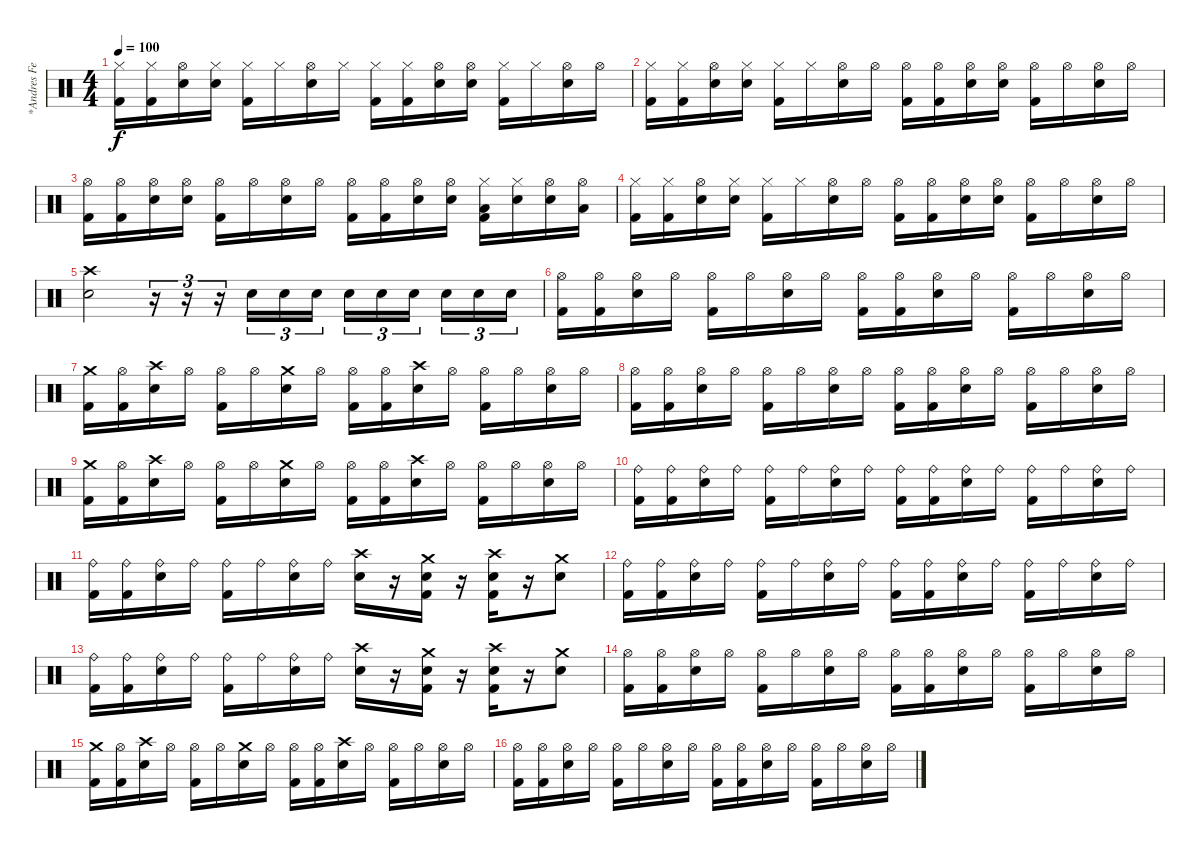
\track ("*Andres Felipe" "*Andres Fe") {instrument percussion}
\staff {score}
\articulation defaults
\ts (4 4)
\tempo 100
\clef neutral
\ks c
("Hi-Hat (closed)" "Kick (hit) 2").16{dy f} ("Hi-Hat (closed)" "Kick (hit) 2").16 ("Hi-Hat (open)" "Electric Snare (hit)").16 ("Hi-Hat (closed)" "Electric Snare (hit)").16 ("Hi-Hat (closed)" "Kick (hit) 2").16 "Hi-Hat (closed)".16 ("Hi-Hat (open)" "Electric Snare (hit)").16 "Hi-Hat (closed)".16 ("Hi-Hat (closed)" "Kick (hit) 2").16 ("Hi-Hat (closed)" "Kick (hit) 2").16 ("Hi-Hat (open)" "Electric Snare (hit)").16 ("Hi-Hat (open)" "Electric Snare (hit)").16 ("Hi-Hat (closed)" "Kick (hit) 2").16 "Hi-Hat (closed)".16 ("Hi-Hat (open)" "Electric Snare (hit)").16 "Hi-Hat (open)".16 |
("Hi-Hat (closed)" "Kick (hit) 2").16 ("Hi-Hat (closed)" "Kick (hit) 2").16 ("Hi-Hat (open)" "Electric Snare (hit)").16 ("Hi-Hat (closed)" "Electric Snare (hit)").16 ("Hi-Hat (closed)" "Kick (hit) 2").16 "Hi-Hat (closed)".16 ("Hi-Hat (open)" "Electric Snare (hit)").16 "Hi-Hat (open)".16 ("Hi-Hat (open)" "Kick (hit) 2").16 ("Hi-Hat (open)" "Kick (hit) 2").16 ("Hi-Hat (open)" "Electric Snare (hit)").16 ("Hi-Hat (open)" "Electric Snare (hit)").16 ("Hi-Hat (open)" "Kick (hit) 2").16 "Hi-Hat (open)".16 ("Hi-Hat (open)" "Electric Snare (hit)").16 "Hi-Hat (open)".16 |
("Hi-Hat (open)" "Kick (hit) 2").16 ("Hi-Hat (open)" "Kick (hit) 2").16 ("Hi-Hat (open)" "Electric Snare (hit)").16 ("Hi-Hat (open)" "Electric Snare (hit)").16 ("Hi-Hat (open)" "Kick (hit) 2").16 "Hi-Hat (open)".16 ("Hi-Hat (open)" "Electric Snare (hit)").16 "Hi-Hat (open)".16 ("Hi-Hat (open)" "Kick (hit) 2").16 ("Hi-Hat (open)" "Kick (hit) 2").16 ("Hi-Hat (open)" "Electric Snare (hit)").16 ("Hi-Hat (open)" "Electric Snare (hit)").16 ("Hi-Hat (closed)" "Low Tom (hit)" "Kick (hit) 2").16 ("Hi-Hat (closed)" "Electric Snare (hit)").16 ("Hi-Hat (open)" "Electric Snare (hit)").16 ("Hi-Hat (open)" "Low Tom (hit)").16 |
("Hi-Hat (closed)" "Kick (hit) 2").16 ("Hi-Hat (closed)" "Kick (hit) 2").16 ("Hi-Hat (open)" "Electric Snare (hit)").16 ("Hi-Hat (closed)" "Electric Snare (hit)").16 ("Hi-Hat (closed)" "Kick (hit) 2").16 "Hi-Hat (closed)".16 ("Hi-Hat (open)" "Electric Snare (hit)").16 "Hi-Hat (open)".16 ("Hi-Hat (open)" "Kick (hit) 2").16 ("Hi-Hat (open)" "Kick (hit) 2").16 ("Hi-Hat (open)" "Electric Snare (hit)").16 ("Hi-Hat (open)" "Electric Snare (hit)").16 ("Hi-Hat (open)" "Kick (hit) 2").16 "Hi-Hat (open)".16 ("Hi-Hat (open)" "Electric Snare (hit)").16 "Hi-Hat (open)".16 |
("Crash high (hit)" "Electric Snare (hit)").2 r.16{tu (3 2)} r.16{tu (3 2)} r.16{tu (3 2)} "Electric Snare (hit)".16{tu (3 2)} "Electric Snare (hit)".16{tu (3 2)} "Electric Snare (hit)".16{tu (3 2)} "Electric Snare (hit)".16{tu (3 2)} "Electric Snare (hit)".16{tu (3 2)} "Electric Snare (hit)".16{tu (3 2)} "Electric Snare (hit)".16{tu (3 2)} "Electric Snare (hit)".16{tu (3 2)} "Electric Snare (hit)".16{tu (3 2)} |
("Hi-Hat (open)" "Kick (hit) 2").16 ("Hi-Hat (open)" "Kick (hit) 2").16 ("Hi-Hat (open)" "Electric Snare (hit)").16 "Hi-Hat (open)".16 ("Hi-Hat (open)" "Kick (hit) 2").16 "Hi-Hat (open)".16 ("Hi-Hat (open)" "Electric Snare (hit)").16 "Hi-Hat (open)".16 ("Hi-Hat (open)" "Kick (hit) 2").16 ("Hi-Hat (open)" "Kick (hit) 2").16 ("Hi-Hat (open)" "Electric Snare (hit)").16 "Hi-Hat (open)".16 ("Hi-Hat (open)" "Kick (hit) 2").16 "Hi-Hat (open)".16 ("Hi-Hat (open)" "Electric Snare (hit)").16 "Hi-Hat (open)".16 |
("Crash medium (hit)" "Kick (hit) 2").16 ("Hi-Hat (open)" "Kick (hit) 2").16 ("Crash high (hit)" "Electric Snare (hit)").16 "Hi-Hat (open)".16 ("Hi-Hat (open)" "Kick (hit) 2").16 "Hi-Hat (open)".16 ("Crash medium (hit)" "Electric Snare (hit)").16 "Hi-Hat (open)".16 ("Hi-Hat (open)" "Kick (hit) 2").16 ("Hi-Hat (open)" "Kick (hit) 2").16 ("Crash high (hit)" "Electric Snare (hit)").16 "Hi-Hat (open)".16 ("Hi-Hat (open)" "Kick (hit) 2").16 "Hi-Hat (open)".16 ("Hi-Hat (open)" "Electric Snare (hit)").16 "Hi-Hat (open)".16 |
("Hi-Hat (open)" "Kick (hit) 2").16 ("Hi-Hat (open)" "Kick (hit) 2").16 ("Hi-Hat (open)" "Electric Snare (hit)").16 "Hi-Hat (open)".16 ("Hi-Hat (open)" "Kick (hit) 2").16 "Hi-Hat (open)".16 ("Hi-Hat (open)" "Electric Snare (hit)").16 "Hi-Hat (open)".16 ("Hi-Hat (open)" "Kick (hit) 2").16 ("Hi-Hat (open)" "Kick (hit) 2").16 ("Hi-Hat (open)" "Electric Snare (hit)").16 "Hi-Hat (open)".16 ("Hi-Hat (open)" "Kick (hit) 2").16 "Hi-Hat (open)".16 ("Hi-Hat (open)" "Electric Snare (hit)").16 "Hi-Hat (open)".16 |
("Crash medium (hit)" "Kick (hit) 2").16 ("Hi-Hat (open)" "Kick (hit) 2").16 ("Crash high (hit)" "Electric Snare (hit)").16 "Hi-Hat (open)".16 ("Hi-Hat (open)" "Kick (hit) 2").16 "Hi-Hat (open)".16 ("Crash medium (hit)" "Electric Snare (hit)").16 "Hi-Hat (open)".16 ("Hi-Hat (open)" "Kick (hit) 2").16 ("Hi-Hat (open)" "Kick (hit) 2").16 ("Crash high (hit)" "Electric Snare (hit)").16 "Hi-Hat (open)".16 ("Hi-Hat (open)" "Kick (hit) 2").16 "Hi-Hat (open)".16 ("Hi-Hat (open)" "Electric Snare (hit)").16 "Hi-Hat (open)".16 |
("Ride (bell)" "Kick (hit) 2").16 ("Ride (bell)" "Kick (hit) 2").16 ("Ride (bell)" "Electric Snare (hit)").16 "Ride (bell)".16 ("Ride (bell)" "Kick (hit) 2").16 "Ride (bell)".16 ("Ride (bell)" "Electric Snare (hit)").16 "Ride (bell)".16 ("Ride (bell)" "Kick (hit) 2").16 ("Ride (bell)" "Kick (hit) 2").16 ("Ride (bell)" "Electric Snare (hit)").16 "Ride (bell)".16 ("Ride (bell)" "Kick (hit) 2").16 "Ride (bell)".16 ("Ride (bell)" "Electric Snare (hit)").16 "Ride (bell)".16 |
("Ride (bell)" "Kick (hit) 2").16 ("Ride (bell)" "Kick (hit) 2").16 ("Ride (bell)" "Electric Snare (hit)").16 "Ride (bell)".16 ("Ride (bell)" "Kick (hit) 2").16 "Ride (bell)".16 ("Ride (bell)" "Electric Snare (hit)").16 "Ride (bell)".16 ("Crash high (hit)" "Electric Snare (hit)").16 r.16 ("Crash medium (hit)" "Electric Snare (hit)" "Kick (hit) 2").16 r.16 ("Crash high (hit)" "Electric Snare (hit)" "Kick (hit) 2").16 r.16 ("Crash medium (hit)" "Electric Snare (hit)").8 |
("Ride (bell)" "Kick (hit) 2").16 ("Ride (bell)" "Kick (hit) 2").16 ("Ride (bell)" "Electric Snare (hit)").16 "Ride (bell)".16 ("Ride (bell)" "Kick (hit) 2").16 "Ride (bell)".16 ("Ride (bell)" "Electric Snare (hit)").16 "Ride (bell)".16 ("Ride (bell)" "Kick (hit) 2").16 ("Ride (bell)" "Kick (hit) 2").16 ("Ride (bell)" "Electric Snare (hit)").16 "Ride (bell)".16 ("Ride (bell)" "Kick (hit) 2").16 "Ride (bell)".16 ("Ride (bell)" "Electric Snare (hit)").16 "Ride (bell)".16 |
("Ride (bell)" "Kick (hit) 2").16 ("Ride (bell)" "Kick (hit) 2").16 ("Ride (bell)" "Electric Snare (hit)").16 "Ride (bell)".16 ("Ride (bell)" "Kick (hit) 2").16 "Ride (bell)".16 ("Ride (bell)" "Electric Snare (hit)").16 "Ride (bell)".16 ("Crash high (hit)" "Electric Snare (hit)").16 r.16 ("Crash medium (hit)" "Electric Snare (hit)" "Kick (hit) 2").16 r.16 ("Crash high (hit)" "Electric Snare (hit)" "Kick (hit) 2").16 r.16 ("Crash medium (hit)" "Electric Snare (hit)").8 |
("Hi-Hat (open)" "Kick (hit) 2").16 ("Hi-Hat (open)" "Kick (hit) 2").16 ("Hi-Hat (open)" "Electric Snare (hit)").16 "Hi-Hat (open)".16 ("Hi-Hat (open)" "Kick (hit) 2").16 "Hi-Hat (open)".16 ("Hi-Hat (open)" "Electric Snare (hit)").16 "Hi-Hat (open)".16 ("Hi-Hat (open)" "Kick (hit) 2").16 ("Hi-Hat (open)" "Kick (hit) 2").16 ("Hi-Hat (open)" "Electric Snare (hit)").16 "Hi-Hat (open)".16 ("Hi-Hat (open)" "Kick (hit) 2").16 "Hi-Hat (open)".16 ("Hi-Hat (open)" "Electric Snare (hit)").16 "Hi-Hat (open)".16 |
("Crash medium (hit)" "Kick (hit) 2").16 ("Hi-Hat (open)" "Kick (hit) 2").16 ("Crash high (hit)" "Electric Snare (hit)").16 "Hi-Hat (open)".16 ("Hi-Hat (open)" "Kick (hit) 2").16 "Hi-Hat (open)".16 ("Crash medium (hit)" "Electric Snare (hit)").16 "Hi-Hat (open)".16 ("Hi-Hat (open)" "Kick (hit) 2").16 ("Hi-Hat (open)" "Kick (hit) 2").16 ("Crash high (hit)" "Electric Snare (hit)").16 "Hi-Hat (open)".16 ("Hi-Hat (open)" "Kick (hit) 2").16 "Hi-Hat (open)".16 ("Hi-Hat (open)" "Electric Snare (hit)").16 "Hi-Hat (open)".16 |
("Hi-Hat (open)" "Kick (hit) 2").16 ("Hi-Hat (open)" "Kick (hit) 2").16 ("Hi-Hat (open)" "Electric Snare (hit)").16 "Hi-Hat (open)".16 ("Hi-Hat (open)" "Kick (hit) 2").16 "Hi-Hat (open)".16 ("Hi-Hat (open)" "Electric Snare (hit)").16 "Hi-Hat (open)".16 ("Hi-Hat (open)" "Kick (hit) 2").16 ("Hi-Hat (open)" "Kick (hit) 2").16 ("Hi-Hat (open)" "Electric Snare (hit)").16 "Hi-Hat (open)".16 ("Hi-Hat (open)" "Kick (hit) 2").16 "Hi-Hat (open)".16 ("Hi-Hat (open)" "Electric Snare (hit)").16 "Hi-Hat (open)".16
